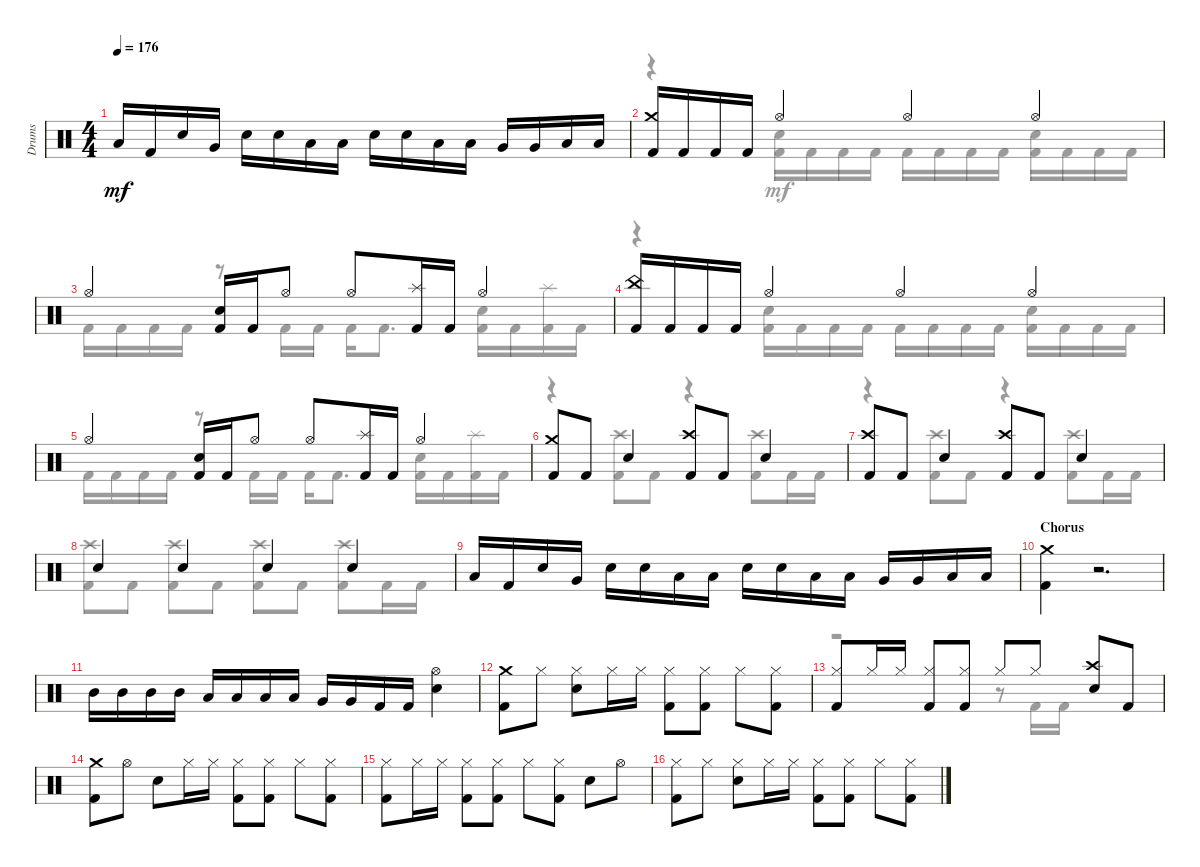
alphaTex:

\track ("Drums" "Drums") {instrument percussion}
\staff {score}
\articulation defaults
\voice
\ts (4 4)
\tempo 176
\clef neutral
\ks aminor "Low Tom (hit)".16{dy mf} "Kick (hit) 2".16 "Snare (hit) 2".16 "Very Low Tom (hit)".16 "Snare (hit) 2".16 "Snare (hit) 2".16 "Low Floor Tom (hit)".16 "Low Floor Tom (hit)".16 "Snare (hit) 2".16 "Snare (hit) 2".16 "Low Tom (hit)".16 "Low Tom (hit)".16 "Very Low Tom (hit)".16 "Very Low Tom (hit)".16 "Low Floor Tom (hit)".16 "Low Floor Tom (hit)".16
|
("Kick (hit) 2" "Crash medium (hit)").16 "Kick (hit) 2".16 "Kick (hit) 2".16 "Kick (hit) 2".16 "Hi-Hat (open)".4 "Hi-Hat (open)".4 "Hi-Hat (open)".4 |
"Hi-Hat (open)".4 ("Snare (hit) 2" "Kick (hit) 2").16 "Kick (hit) 2".16 "Hi-Hat (open)".8 "Hi-Hat (open)".8 ("Kick (hit) 2" "Splash (hit)").16 "Kick (hit) 2".16 "Hi-Hat (open)".4 |
("Kick (hit) 2" "China (hit)").16 "Kick (hit) 2".16 "Kick (hit) 2".16 "Kick (hit) 2".16 "Hi-Hat (open)".4 "Hi-Hat (open)".4 "Hi-Hat (open)".4 |
"Hi-Hat (open)".4 ("Kick (hit) 2" "Snare (hit) 2").16 "Kick (hit) 2".16 "Hi-Hat (open)".8 "Hi-Hat (open)".8 ("Kick (hit) 2" "Splash (hit)").16 "Kick (hit) 2".16 "Hi-Hat (open)".4 |
("Kick (hit) 2" "Crash medium (hit)").8 "Kick (hit) 2".8 "Snare (hit) 2".4 ("Crash high (hit)" "Kick (hit) 2").8 "Kick (hit) 2".8 "Snare (hit) 2".4 |
("Kick (hit) 2" "Crash high (hit)").8 "Kick (hit) 2".8 "Snare (hit) 2".4 ("Crash high (hit)" "Kick (hit) 2").8 "Kick (hit) 2".8 "Snare (hit) 2".4 |
"Snare (hit) 2".4 "Snare (hit) 2".4 "Snare (hit) 2".4 "Snare (hit) 2".4 |
"Low Tom (hit)".16 "Kick (hit) 2".16 "Snare (hit) 2".16 "Very Low Tom (hit)".16 "Snare (hit) 2".16 "Snare (hit) 2".16 "Low Floor Tom (hit)".16 "Low Floor Tom (hit)".16 "Snare (hit) 2".16 "Snare (hit) 2".16 "Low Tom (hit)".16 "Low Tom (hit)".16 "Very Low Tom (hit)".16 "Very Low Tom (hit)".16 "Low Floor Tom (hit)".16 "Low Floor Tom (hit)".16 |
\section ("" "Chorus")
("Kick (hit) 2" "Crash medium (hit)").4 r.2{d} |
"Mid Tom (hit)".16 "Mid Tom (hit)".16 "Mid Tom (hit)".16 "Mid Tom (hit)".16 "Low Tom (hit)".16 "Low Tom (hit)".16 "Low Tom (hit)".16 "Low Tom (hit)".16 "Very Low Tom (hit)".16 "Very Low Tom (hit)".16 "Kick (hit) 2".16 "Kick (hit) 2".16 ("Hi-Hat (open)" "Snare (hit) 2").4 |
("Crash medium (hit)" "Kick (hit) 2").8 "Hi-Hat (closed)".8 ("Snare (hit) 2" "Hi-Hat (closed)").8 "Hi-Hat (closed)".16 "Hi-Hat (closed)".16 ("Hi-Hat (closed)" "Kick (hit) 2").8 ("Kick (hit) 2" "Hi-Hat (closed)").8 "Hi-Hat (closed)".8 ("Hi-Hat (closed)" "Kick (hit) 2").8 |
("Kick (hit) 2" "Hi-Hat (closed)").8 "Hi-Hat (closed)".16 "Hi-Hat (closed)".16 ("Hi-Hat (closed)" "Kick (hit) 2").8 ("Kick (hit) 2" "Hi-Hat (closed)").8 "Hi-Hat (closed)".8 "Hi-Hat (closed)".8 ("Snare (hit) 2" "Crash high (hit)").8 "Kick (hit) 2".8 |
("Crash medium (hit)" "Kick (hit) 2").8 "Hi-Hat (open)".8 "Snare (hit) 2".8 "Hi-Hat (closed)".16 "Hi-Hat (closed)".16 ("Hi-Hat (closed)" "Kick (hit) 2").8 ("Hi-Hat (closed)" "Kick (hit) 2").8 "Hi-Hat (closed)".8 ("Kick (hit) 2" "Hi-Hat (closed)").8 |
("Kick (hit) 2" "Hi-Hat (closed)").8 "Hi-Hat (closed)".16 "Hi-Hat (closed)".16 ("Hi-Hat (closed)" "Kick (hit) 2").8 ("Hi-Hat (closed)" "Kick (hit) 2").8 "Hi-Hat (closed)".8 ("Hi-Hat (closed)" "Kick (hit) 2").8 "Snare (hit) 2".8 "Hi-Hat (open)".8 |
("Hi-Hat (closed)" "Kick (hit) 2").8 "Hi-Hat (closed)".8 ("Snare (hit) 2" "Hi-Hat (closed)").8 "Hi-Hat (closed)".16 "Hi-Hat (closed)".16 ("Hi-Hat (closed)" "Kick (hit) 2").8 ("Hi-Hat (closed)" "Kick (hit) 2").8 "Hi-Hat (closed)".8 ("Hi-Hat (closed)" "Kick (hit) 2").8
\voice
\clef neutral
\ottava regular
\simile none
\ks aminor
|
r.4 ("Kick (hit) 2" "Snare (hit) 2").16 "Kick (hit) 2".16 "Kick (hit) 2".16 "Kick (hit) 2".16 "Kick (hit) 2".16 "Kick (hit) 2".16 "Kick (hit) 2".16 "Kick (hit) 2".16 ("Kick (hit) 2" "Snare (hit) 2").16 "Kick (hit) 2".16 "Kick (hit) 2".16 "Kick (hit) 2".16 |
"Kick (hit) 2".16 "Kick (hit) 2".16 "Kick (hit) 2".16 "Kick (hit) 2".16 r.8 "Kick (hit) 2".16 "Kick (hit) 2".16 "Kick (hit) 2".16 "Kick (hit) 2".8{d} ("Kick (hit) 2" "Snare (hit) 2").16 "Kick (hit) 2".16 ("Kick (hit) 2" "Splash (hit)").16 "Kick (hit) 2".16 |
r.4 ("Kick (hit) 2" "Snare (hit) 2").16 "Kick (hit) 2".16 "Kick (hit) 2".16 "Kick (hit) 2".16 "Kick (hit) 2".16 "Kick (hit) 2".16 "Kick (hit) 2".16 "Kick (hit) 2".16 ("Kick (hit) 2" "Snare (hit) 2").16 "Kick (hit) 2".16 "Kick (hit) 2".16 "Kick (hit) 2".16 |
"Kick (hit) 2".16 "Kick (hit) 2".16 "Kick (hit) 2".16 "Kick (hit) 2".16 r.8 "Kick (hit) 2".16 "Kick (hit) 2".16 "Kick (hit) 2".16 "Kick (hit) 2".8{d} ("Kick (hit) 2" "Snare (hit) 2").16 "Kick (hit) 2".16 ("Splash (hit)" "Kick (hit) 2").16 "Kick (hit) 2".16 |
r.4 ("Kick (hit) 2" "Crash high (hit)").8 "Kick (hit) 2".8 r.4 ("Crash high (hit)" "Kick (hit) 2").8 "Kick (hit) 2".16 "Kick (hit) 2".16 |
r.4 ("Kick (hit) 2" "Crash high (hit)").8 "Kick (hit) 2".8 r.4 ("Kick (hit) 2" "Crash high (hit)").8 "Kick (hit) 2".16 "Kick (hit) 2".16 |
("Crash high (hit)" "Kick (hit) 2").8 "Kick (hit) 2".8 ("Crash high (hit)" "Kick (hit) 2").8 "Kick (hit) 2".8 ("Crash high (hit)" "Kick (hit) 2").8 "Kick (hit) 2".8 ("Kick (hit) 2" "Crash high (hit)").8 "Kick (hit) 2".16 "Kick (hit) 2".16 |
|
|
|
|
r.2 r.8 "Kick (hit) 2".16 "Kick (hit) 2".16 |
|
|
